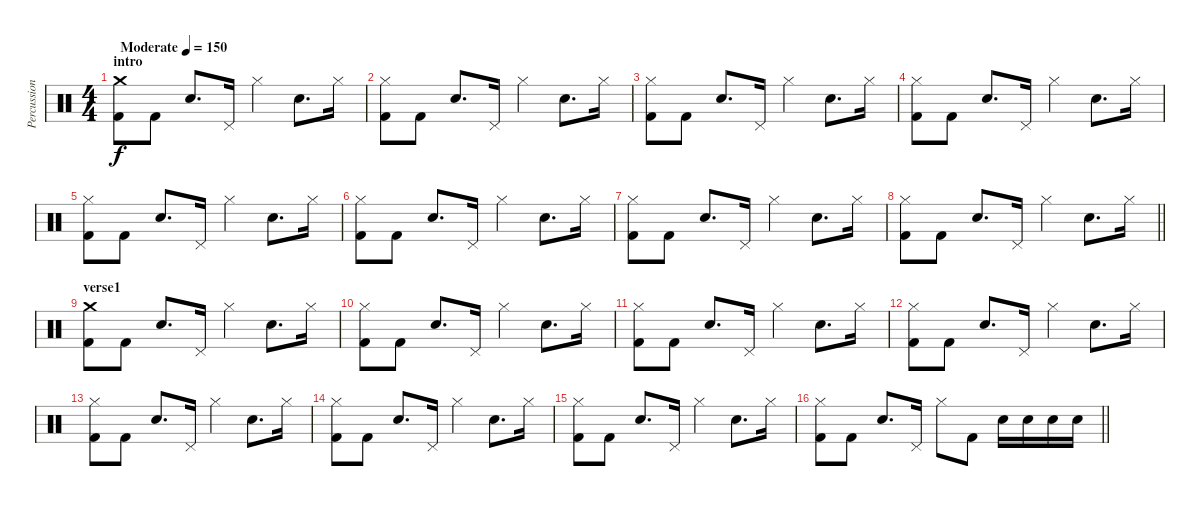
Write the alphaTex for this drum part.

\track ("Percussion" "Percussion") {instrument percussion}
\staff {score}
\articulation defaults
\ts (4 4)
\section ("" "intro")
\tempo (150 "Moderate")
\clef neutral
\ks c
("Crash medium (hit)" "Kick (hit) 2").8{dy f} "Kick (hit) 2".8 "Electric Snare (hit)".8{d} "Pedal Hi-Hat (hit)".16 "Hi-Hat (closed)".4 "Electric Snare (hit)".8{d} "Hi-Hat (closed)".16 |
("Hi-Hat (closed)" "Kick (hit) 2").8 "Kick (hit) 2".8 "Electric Snare (hit)".8{d} "Pedal Hi-Hat (hit)".16 "Hi-Hat (closed)".4 "Electric Snare (hit)".8{d} "Hi-Hat (closed)".16 |
("Hi-Hat (closed)" "Kick (hit) 2").8 "Kick (hit) 2".8 "Electric Snare (hit)".8{d} "Pedal Hi-Hat (hit)".16 "Hi-Hat (closed)".4 "Electric Snare (hit)".8{d} "Hi-Hat (closed)".16 |
("Hi-Hat (closed)" "Kick (hit) 2").8 "Kick (hit) 2".8 "Electric Snare (hit)".8{d} "Pedal Hi-Hat (hit)".16 "Hi-Hat (closed)".4 "Electric Snare (hit)".8{d} "Hi-Hat (closed)".16 |
("Hi-Hat (closed)" "Kick (hit) 2").8 "Kick (hit) 2".8 "Electric Snare (hit)".8{d} "Pedal Hi-Hat (hit)".16 "Hi-Hat (closed)".4 "Electric Snare (hit)".8{d} "Hi-Hat (closed)".16 |
("Hi-Hat (closed)" "Kick (hit) 2").8 "Kick (hit) 2".8 "Electric Snare (hit)".8{d} "Pedal Hi-Hat (hit)".16 "Hi-Hat (closed)".4 "Electric Snare (hit)".8{d} "Hi-Hat (closed)".16 |
("Hi-Hat (closed)" "Kick (hit) 2").8 "Kick (hit) 2".8 "Electric Snare (hit)".8{d} "Pedal Hi-Hat (hit)".16 "Hi-Hat (closed)".4 "Electric Snare (hit)".8{d} "Hi-Hat (closed)".16 |
\barLineRight lightlight
("Hi-Hat (closed)" "Kick (hit) 2").8 "Kick (hit) 2".8 "Electric Snare (hit)".8{d} "Pedal Hi-Hat (hit)".16 "Hi-Hat (closed)".4 "Electric Snare (hit)".8{d} "Hi-Hat (closed)".16 |
\section ("" "verse1")
("Crash medium (hit)" "Kick (hit) 2").8 "Kick (hit) 2".8 "Electric Snare (hit)".8{d} "Pedal Hi-Hat (hit)".16 "Hi-Hat (closed)".4 "Electric Snare (hit)".8{d} "Hi-Hat (closed)".16 |
("Hi-Hat (closed)" "Kick (hit) 2").8 "Kick (hit) 2".8 "Electric Snare (hit)".8{d} "Pedal Hi-Hat (hit)".16 "Hi-Hat (closed)".4 "Electric Snare (hit)".8{d} "Hi-Hat (closed)".16 |
("Hi-Hat (closed)" "Kick (hit) 2").8 "Kick (hit) 2".8 "Electric Snare (hit)".8{d} "Pedal Hi-Hat (hit)".16 "Hi-Hat (closed)".4 "Electric Snare (hit)".8{d} "Hi-Hat (closed)".16 |
("Hi-Hat (closed)" "Kick (hit) 2").8 "Kick (hit) 2".8 "Electric Snare (hit)".8{d} "Pedal Hi-Hat (hit)".16 "Hi-Hat (closed)".4 "Electric Snare (hit)".8{d} "Hi-Hat (closed)".16 |
("Hi-Hat (closed)" "Kick (hit) 2").8 "Kick (hit) 2".8 "Electric Snare (hit)".8{d} "Pedal Hi-Hat (hit)".16 "Hi-Hat (closed)".4 "Electric Snare (hit)".8{d} "Hi-Hat (closed)".16 |
("Hi-Hat (closed)" "Kick (hit) 2").8 "Kick (hit) 2".8 "Electric Snare (hit)".8{d} "Pedal Hi-Hat (hit)".16 "Hi-Hat (closed)".4 "Electric Snare (hit)".8{d} "Hi-Hat (closed)".16 |
("Hi-Hat (closed)" "Kick (hit) 2").8 "Kick (hit) 2".8 "Electric Snare (hit)".8{d} "Pedal Hi-Hat (hit)".16 "Hi-Hat (closed)".4 "Electric Snare (hit)".8{d} "Hi-Hat (closed)".16 |
\barLineRight lightlight
("Hi-Hat (closed)" "Kick (hit) 2").8 "Kick (hit) 2".8 "Electric Snare (hit)".8{d} "Pedal Hi-Hat (hit)".16 "Hi-Hat (closed)".8 "Kick (hit) 2".8 "Electric Snare (hit)".16 "Electric Snare (hit)".16 "Electric Snare (hit)".16 "Electric Snare (hit)".16
